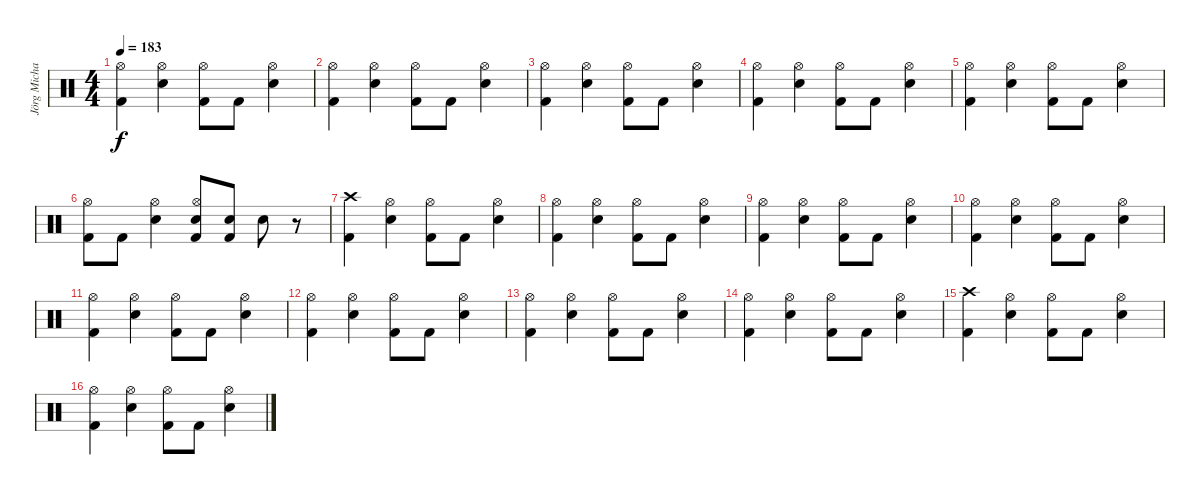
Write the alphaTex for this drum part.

\track ("Jörg Michael" "Jörg Micha") {instrument percussion}
\staff {score}
\articulation defaults
\ts (4 4)
\tempo 183
\clef neutral
\ks c
("Kick (hit) 2" "Hi-Hat (open)").4{dy f} ("Snare (hit) 2" "Hi-Hat (open)").4 ("Kick (hit) 2" "Hi-Hat (open)").8 "Kick (hit) 2".8 ("Snare (hit) 2" "Hi-Hat (open)").4 |
("Kick (hit) 2" "Hi-Hat (open)").4 ("Snare (hit) 2" "Hi-Hat (open)").4 ("Kick (hit) 2" "Hi-Hat (open)").8 "Kick (hit) 2".8 ("Snare (hit) 2" "Hi-Hat (open)").4 |
("Kick (hit) 2" "Hi-Hat (open)").4 ("Snare (hit) 2" "Hi-Hat (open)").4 ("Kick (hit) 2" "Hi-Hat (open)").8 "Kick (hit) 2".8 ("Snare (hit) 2" "Hi-Hat (open)").4 |
("Kick (hit) 2" "Hi-Hat (open)").4 ("Snare (hit) 2" "Hi-Hat (open)").4 ("Kick (hit) 2" "Hi-Hat (open)").8 "Kick (hit) 2".8 ("Snare (hit) 2" "Hi-Hat (open)").4 |
("Kick (hit) 2" "Hi-Hat (open)").4 ("Snare (hit) 2" "Hi-Hat (open)").4 ("Kick (hit) 2" "Hi-Hat (open)").8 "Kick (hit) 2".8 ("Snare (hit) 2" "Hi-Hat (open)").4 |
("Kick (hit) 2" "Hi-Hat (open)").8 "Kick (hit) 2".8 ("Snare (hit) 2" "Hi-Hat (open)").4 ("Snare (hit) 2" "Kick (hit) 2" "Hi-Hat (open)").8 ("Snare (hit) 2" "Kick (hit) 2").8 "Snare (hit) 2".8 r.8 |
("Kick (hit) 2" "Crash high (hit)").4 ("Snare (hit) 2" "Hi-Hat (open)").4 ("Kick (hit) 2" "Hi-Hat (open)").8 "Kick (hit) 2".8 ("Snare (hit) 2" "Hi-Hat (open)").4 |
("Kick (hit) 2" "Hi-Hat (open)").4 ("Snare (hit) 2" "Hi-Hat (open)").4 ("Kick (hit) 2" "Hi-Hat (open)").8 "Kick (hit) 2".8 ("Snare (hit) 2" "Hi-Hat (open)").4 |
("Kick (hit) 2" "Hi-Hat (open)").4 ("Snare (hit) 2" "Hi-Hat (open)").4 ("Kick (hit) 2" "Hi-Hat (open)").8 "Kick (hit) 2".8 ("Snare (hit) 2" "Hi-Hat (open)").4 |
("Kick (hit) 2" "Hi-Hat (open)").4 ("Snare (hit) 2" "Hi-Hat (open)").4 ("Kick (hit) 2" "Hi-Hat (open)").8 "Kick (hit) 2".8 ("Snare (hit) 2" "Hi-Hat (open)").4 |
("Kick (hit) 2" "Hi-Hat (open)").4 ("Snare (hit) 2" "Hi-Hat (open)").4 ("Kick (hit) 2" "Hi-Hat (open)").8 "Kick (hit) 2".8 ("Snare (hit) 2" "Hi-Hat (open)").4 |
("Kick (hit) 2" "Hi-Hat (open)").4 ("Snare (hit) 2" "Hi-Hat (open)").4 ("Kick (hit) 2" "Hi-Hat (open)").8 "Kick (hit) 2".8 ("Snare (hit) 2" "Hi-Hat (open)").4 |
("Kick (hit) 2" "Hi-Hat (open)").4 ("Snare (hit) 2" "Hi-Hat (open)").4 ("Kick (hit) 2" "Hi-Hat (open)").8 "Kick (hit) 2".8 ("Snare (hit) 2" "Hi-Hat (open)").4 |
("Kick (hit) 2" "Hi-Hat (open)").4 ("Snare (hit) 2" "Hi-Hat (open)").4 ("Kick (hit) 2" "Hi-Hat (open)").8 "Kick (hit) 2".8 ("Snare (hit) 2" "Hi-Hat (open)").4 |
("Kick (hit) 2" "Crash high (hit)").4 ("Snare (hit) 2" "Hi-Hat (open)").4 ("Kick (hit) 2" "Hi-Hat (open)").8 "Kick (hit) 2".8 ("Snare (hit) 2" "Hi-Hat (open)").4 |
("Kick (hit) 2" "Hi-Hat (open)").4 ("Snare (hit) 2" "Hi-Hat (open)").4 ("Kick (hit) 2" "Hi-Hat (open)").8 "Kick (hit) 2".8 ("Snare (hit) 2" "Hi-Hat (open)").4
